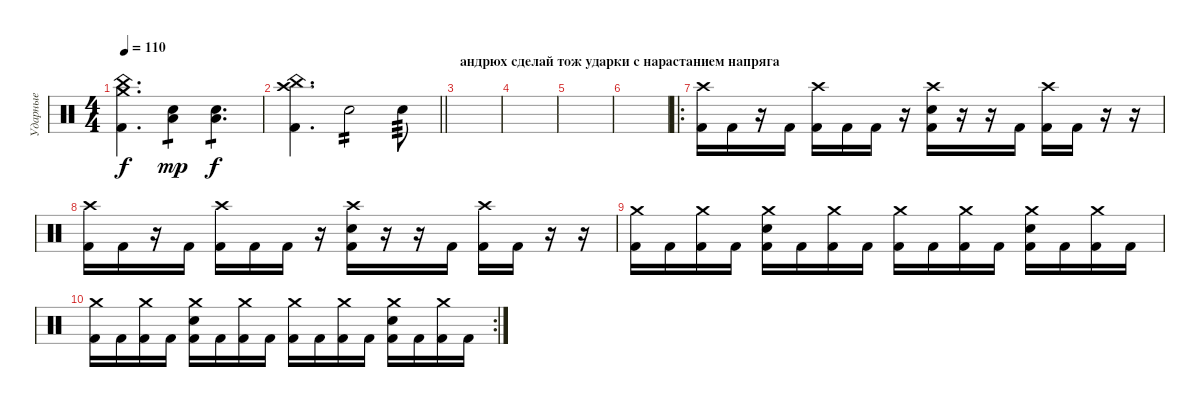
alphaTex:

\track ("Ударные" "Ударные") {instrument percussion}
\staff {score}
\articulation defaults
\ts (4 4)
\tempo 110
\clef neutral
\ks c
("Crash medium (hit)" "China (hit)" "Kick (hit) 2").4{d dy f} ("Low Tom (hit)" "Electric Snare (hit)").4{tp 1 dy mp} ("Low Tom (hit)" "Electric Snare (hit)").4{d tp 1 dy f} |
\barLineRight lightlight
("Crash high (hit)" "China (hit)" "Kick (hit) 2").4{d} "Electric Snare (hit)".2{tp 2} "Electric Snare (hit)".8{tp 3} |
\section ("" "андрюх сделай тож ударки с нарастанием напряга")
|
|
|
|
\ro
("Crash high (hit)" "Kick (hit) 2").16 "Kick (hit) 2".16 r.16 "Kick (hit) 2".16 ("Crash high (hit)" "Kick (hit) 2").16 "Kick (hit) 2".16 "Kick (hit) 2".16 r.16 ("Crash high (hit)" "Electric Snare (hit)" "Kick (hit) 2").16 r.16 r.16 "Kick (hit) 2".16 ("Crash high (hit)" "Kick (hit) 2").16 "Kick (hit) 2".16 r.16 r.16 |
("Crash high (hit)" "Kick (hit) 2").16 "Kick (hit) 2".16 r.16 "Kick (hit) 2".16 ("Crash high (hit)" "Kick (hit) 2").16 "Kick (hit) 2".16 "Kick (hit) 2".16 r.16 ("Crash high (hit)" "Electric Snare (hit)" "Kick (hit) 2").16 r.16 r.16 "Kick (hit) 2".16 ("Crash high (hit)" "Kick (hit) 2").16 "Kick (hit) 2".16 r.16 r.16 |
("Crash medium (hit)" "Kick (hit) 2").16 "Kick (hit) 2".16 ("Crash medium (hit)" "Kick (hit) 2").16 "Kick (hit) 2".16 ("Crash medium (hit)" "Electric Snare (hit)" "Kick (hit) 2").16 "Kick (hit) 2".16 ("Crash medium (hit)" "Kick (hit) 2").16 "Kick (hit) 2".16 ("Crash medium (hit)" "Kick (hit) 2").16 "Kick (hit) 2".16 ("Crash medium (hit)" "Kick (hit) 2").16 "Kick (hit) 2".16 ("Crash medium (hit)" "Electric Snare (hit)" "Kick (hit) 2").16 "Kick (hit) 2".16 ("Crash medium (hit)" "Kick (hit) 2").16 "Kick (hit) 2".16 |
\rc 2
("Crash medium (hit)" "Kick (hit) 2").16 "Kick (hit) 2".16 ("Crash medium (hit)" "Kick (hit) 2").16 "Kick (hit) 2".16 ("Crash medium (hit)" "Electric Snare (hit)" "Kick (hit) 2").16 "Kick (hit) 2".16 ("Crash medium (hit)" "Kick (hit) 2").16 "Kick (hit) 2".16 ("Crash medium (hit)" "Kick (hit) 2").16 "Kick (hit) 2".16 ("Crash medium (hit)" "Kick (hit) 2").16 "Kick (hit) 2".16 ("Crash medium (hit)" "Electric Snare (hit)" "Kick (hit) 2").16 "Kick (hit) 2".16 ("Crash medium (hit)" "Kick (hit) 2").16 "Kick (hit) 2".16
